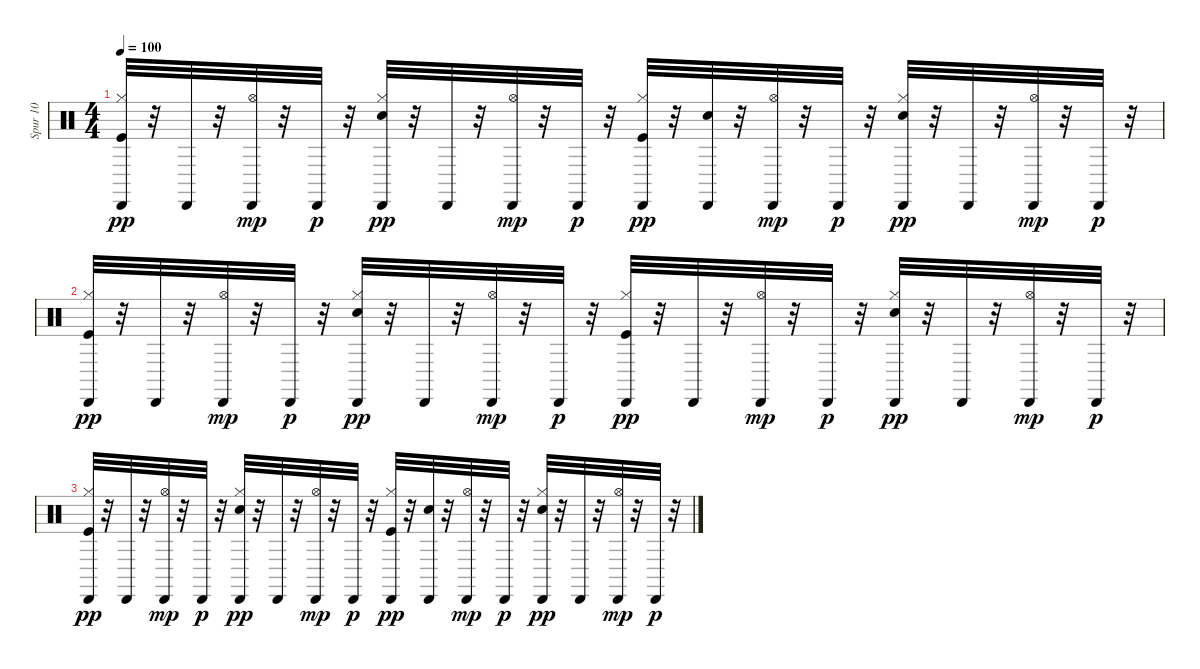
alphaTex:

\track ("Spur 10" "Spur 10") {instrument percussion}
\staff {score}
\articulation defaults
\ts (4 4)
\tempo 100
\clef neutral
\ks c
("Kick (hit)" "Hi-Hat (closed)" "Cabasa (hit)").32{dy pp} r.32 "Cabasa (hit)".32 r.32 ("Hi-Hat (open)" "Cabasa (hit)").32{dy mp} r.32 "Cabasa (hit)".32{dy p} r.32 ("Electric Snare (hit)" "Hi-Hat (closed)" "Cabasa (hit)").32{dy pp} r.32 "Cabasa (hit)".32 r.32 ("Hi-Hat (open)" "Cabasa (hit)").32{dy mp} r.32 "Cabasa (hit)".32{dy p} r.32 ("Kick (hit)" "Hi-Hat (closed)" "Cabasa (hit)").32{dy pp} r.32 ("Electric Snare (hit)" "Cabasa (hit)").32 r.32 ("Hi-Hat (open)" "Cabasa (hit)").32{dy mp} r.32 "Cabasa (hit)".32{dy p} r.32 ("Electric Snare (hit)" "Hi-Hat (closed)" "Cabasa (hit)").32{dy pp} r.32 "Cabasa (hit)".32 r.32 ("Hi-Hat (open)" "Cabasa (hit)").32{dy mp} r.32 "Cabasa (hit)".32{dy p} r.32 |
("Kick (hit)" "Hi-Hat (closed)" "Cabasa (hit)").32{dy pp} r.32 "Cabasa (hit)".32 r.32 ("Hi-Hat (open)" "Cabasa (hit)").32{dy mp} r.32 "Cabasa (hit)".32{dy p} r.32 ("Electric Snare (hit)" "Hi-Hat (closed)" "Cabasa (hit)").32{dy pp} r.32 "Cabasa (hit)".32 r.32 ("Hi-Hat (open)" "Cabasa (hit)").32{dy mp} r.32 "Cabasa (hit)".32{dy p} r.32 ("Kick (hit)" "Hi-Hat (closed)" "Cabasa (hit)").32{dy pp} r.32 "Cabasa (hit)".32 r.32 ("Hi-Hat (open)" "Cabasa (hit)").32{dy mp} r.32 "Cabasa (hit)".32{dy p} r.32 ("Electric Snare (hit)" "Hi-Hat (closed)" "Cabasa (hit)").32{dy pp} r.32 "Cabasa (hit)".32 r.32 ("Hi-Hat (open)" "Cabasa (hit)").32{dy mp} r.32 "Cabasa (hit)".32{dy p} r.32 |
("Kick (hit)" "Hi-Hat (closed)" "Cabasa (hit)").32{dy pp} r.32 "Cabasa (hit)".32 r.32 ("Hi-Hat (open)" "Cabasa (hit)").32{dy mp} r.32 "Cabasa (hit)".32{dy p} r.32 ("Electric Snare (hit)" "Hi-Hat (closed)" "Cabasa (hit)").32{dy pp} r.32 "Cabasa (hit)".32 r.32 ("Hi-Hat (open)" "Cabasa (hit)").32{dy mp} r.32 "Cabasa (hit)".32{dy p} r.32 ("Kick (hit)" "Hi-Hat (closed)" "Cabasa (hit)").32{dy pp} r.32 ("Electric Snare (hit)" "Cabasa (hit)").32 r.32 ("Hi-Hat (open)" "Cabasa (hit)").32{dy mp} r.32 "Cabasa (hit)".32{dy p} r.32 ("Electric Snare (hit)" "Hi-Hat (closed)" "Cabasa (hit)").32{dy pp} r.32 "Cabasa (hit)".32 r.32 ("Hi-Hat (open)" "Cabasa (hit)").32{dy mp} r.32 "Cabasa (hit)".32{dy p} r.32
